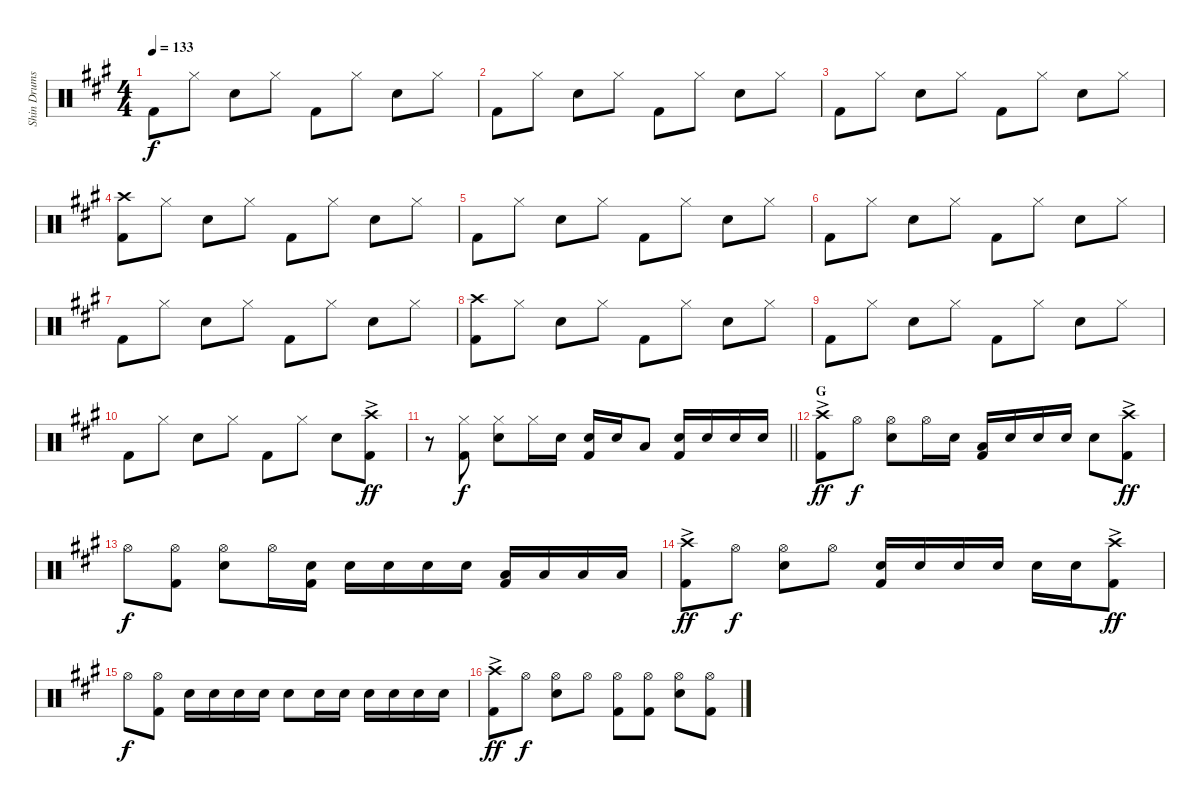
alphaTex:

\track ("Shin Drums" "Shin Drums") {instrument percussion}
\staff {score}
\articulation defaults
\ts (4 4)
\tempo 133
\clef neutral
\ks a "Kick (hit) 2".8{dy f} "Hi-Hat (closed)".8 "Snare (hit) 2".8 "Hi-Hat (closed)".8 "Kick (hit) 2".8 "Hi-Hat (closed)".8 "Snare (hit) 2".8 "Hi-Hat (closed)".8
|
"Kick (hit) 2".8 "Hi-Hat (closed)".8 "Snare (hit) 2".8 "Hi-Hat (closed)".8 "Kick (hit) 2".8 "Hi-Hat (closed)".8 "Snare (hit) 2".8 "Hi-Hat (closed)".8 |
"Kick (hit) 2".8 "Hi-Hat (closed)".8 "Snare (hit) 2".8 "Hi-Hat (closed)".8 "Kick (hit) 2".8 "Hi-Hat (closed)".8 "Snare (hit) 2".8 "Hi-Hat (closed)".8 |
("Crash high (hit)" "Kick (hit) 2").8 "Hi-Hat (closed)".8 "Snare (hit) 2".8 "Hi-Hat (closed)".8 "Kick (hit) 2".8 "Hi-Hat (closed)".8 "Snare (hit) 2".8 "Hi-Hat (closed)".8 |
"Kick (hit) 2".8 "Hi-Hat (closed)".8 "Snare (hit) 2".8 "Hi-Hat (closed)".8 "Kick (hit) 2".8 "Hi-Hat (closed)".8 "Snare (hit) 2".8 "Hi-Hat (closed)".8 |
"Kick (hit) 2".8 "Hi-Hat (closed)".8 "Snare (hit) 2".8 "Hi-Hat (closed)".8 "Kick (hit) 2".8 "Hi-Hat (closed)".8 "Snare (hit) 2".8 "Hi-Hat (closed)".8 |
"Kick (hit) 2".8 "Hi-Hat (closed)".8 "Snare (hit) 2".8 "Hi-Hat (closed)".8 "Kick (hit) 2".8 "Hi-Hat (closed)".8 "Snare (hit) 2".8 "Hi-Hat (closed)".8 |
("Crash high (hit)" "Kick (hit) 2").8 "Hi-Hat (closed)".8 "Snare (hit) 2".8 "Hi-Hat (closed)".8 "Kick (hit) 2".8 "Hi-Hat (closed)".8 "Snare (hit) 2".8 "Hi-Hat (closed)".8 |
"Kick (hit) 2".8 "Hi-Hat (closed)".8 "Snare (hit) 2".8 "Hi-Hat (closed)".8 "Kick (hit) 2".8 "Hi-Hat (closed)".8 "Snare (hit) 2".8 "Hi-Hat (closed)".8 |
"Kick (hit) 2".8 "Hi-Hat (closed)".8 "Snare (hit) 2".8 "Hi-Hat (closed)".8 "Kick (hit) 2".8 "Hi-Hat (closed)".8 "Snare (hit) 2".8 ("Crash high (hit)"{ac} "Kick (hit) 2").8{dy ff} |
\barLineRight lightlight
r.8 ("Hi-Hat (closed)" "Kick (hit) 2").8{dy f} ("Hi-Hat (closed)" "Snare (hit) 2").8 "Hi-Hat (closed)".16 "Snare (hit) 2".16 ("Snare (hit) 2" "Kick (hit) 2").16 "Snare (hit) 2".16 "Low Tom (hit)".8 ("Snare (hit) 2" "Kick (hit) 2").16 "Snare (hit) 2".16 "Snare (hit) 2".16 "Snare (hit) 2".16 |
\section ("" "G")
("Crash high (hit)"{ac} "Kick (hit) 2").8{dy ff} "Hi-Hat (open)".8{dy f} ("Hi-Hat (open)" "Snare (hit) 2").8 "Hi-Hat (open)".16 "Snare (hit) 2".16 ("Low Tom (hit)" "Kick (hit) 2").16 "Snare (hit) 2".16 "Snare (hit) 2".16 "Snare (hit) 2".16 "Snare (hit) 2".8 ("Crash high (hit)"{ac} "Kick (hit) 2").8{dy ff} |
"Hi-Hat (open)".8{dy f} ("Hi-Hat (open)" "Kick (hit) 2").8 ("Hi-Hat (open)" "Snare (hit) 2").8 "Hi-Hat (open)".16 ("Snare (hit) 2" "Kick (hit) 2").16 "Snare (hit) 2".16 "Snare (hit) 2".16 "Snare (hit) 2".16 "Snare (hit) 2".16 ("Low Floor Tom (hit)" "Kick (hit) 2").16 "Low Floor Tom (hit)".16 "Low Floor Tom (hit)".16 "Low Floor Tom (hit)".16 |
("Crash high (hit)"{ac} "Kick (hit) 2").8{dy ff} "Hi-Hat (open)".8{dy f} ("Hi-Hat (open)" "Snare (hit) 2").8 "Hi-Hat (open)".8 ("Snare (hit) 2" "Kick (hit) 2").16 "Snare (hit) 2".16 "Snare (hit) 2".16 "Snare (hit) 2".16 "Snare (hit) 2".16 "Snare (hit) 2".16 ("Crash high (hit)"{ac} "Kick (hit) 2").8{dy ff} |
"Hi-Hat (open)".8{dy f} ("Hi-Hat (open)" "Kick (hit) 2").8 "Snare (hit) 2".16 "Snare (hit) 2".16 "Snare (hit) 2".16 "Snare (hit) 2".16 "Snare (hit) 2".8 "Snare (hit) 2".16 "Snare (hit) 2".16 "Snare (hit) 2".16 "Snare (hit) 2".16 "Snare (hit) 2".16 "Snare (hit) 2".16 |
("Crash high (hit)" "Kick (hit) 2"{ac}).8{dy ff} "Hi-Hat (open)".8{dy f} ("Hi-Hat (open)" "Snare (hit) 2").8 "Hi-Hat (open)".8 ("Hi-Hat (open)" "Kick (hit) 2").8 ("Hi-Hat (open)" "Kick (hit) 2").8 ("Hi-Hat (open)" "Snare (hit) 2").8 ("Hi-Hat (open)" "Kick (hit) 2").8
